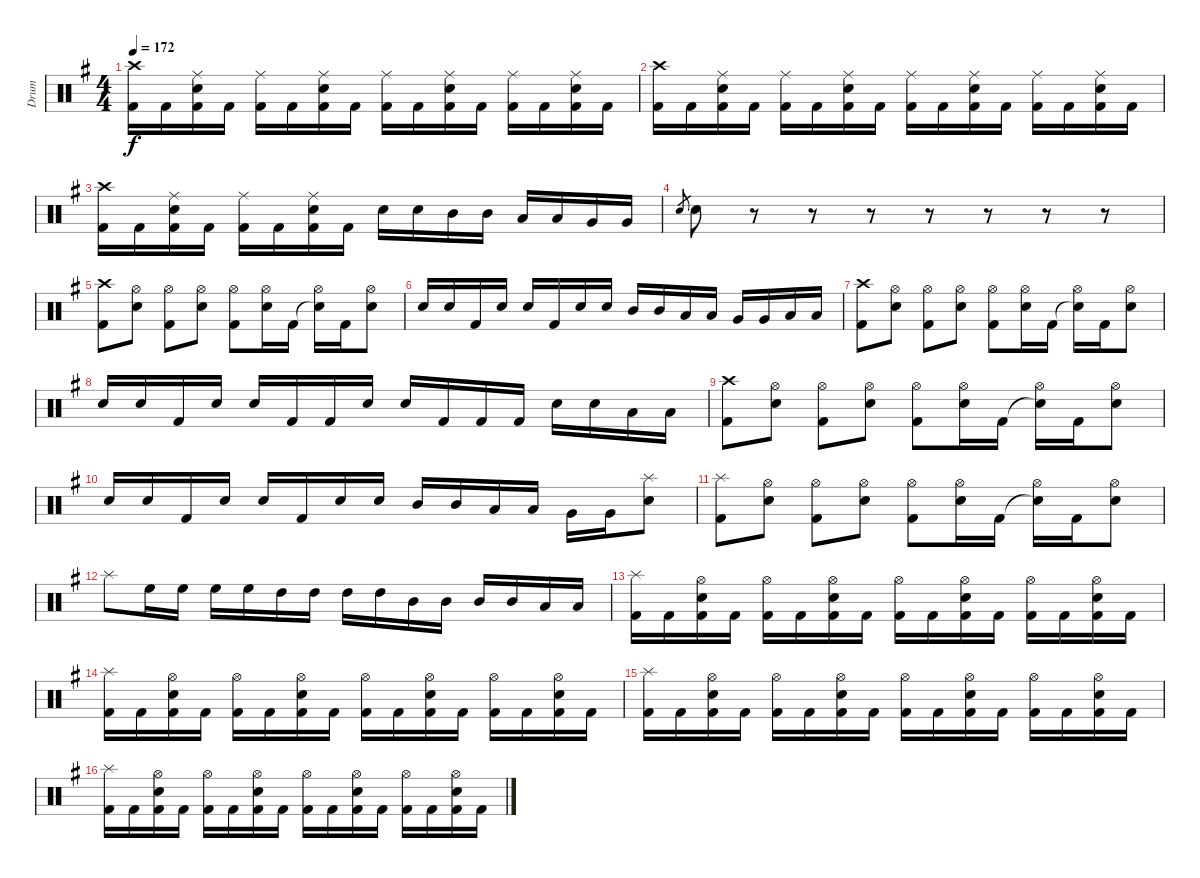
\track ("Drum" "Drum") {instrument percussion}
\staff {score}
\articulation defaults
\ts (4 4)
\tempo 172
\clef neutral
\ks eminor
("Kick (hit) 2" "Crash high (hit)").16{dy f} "Kick (hit) 2".16 ("Kick (hit) 2" "Ride (middle)" "Electric Snare (hit)").16 "Kick (hit) 2".16 ("Kick (hit) 2" "Ride (middle)").16 "Kick (hit) 2".16 ("Kick (hit) 2" "Ride (middle)" "Electric Snare (hit)").16 "Kick (hit) 2".16 ("Kick (hit) 2" "Ride (middle)").16 "Kick (hit) 2".16 ("Kick (hit) 2" "Ride (middle)" "Electric Snare (hit)").16 "Kick (hit) 2".16 ("Kick (hit) 2" "Ride (middle)").16 "Kick (hit) 2".16 ("Kick (hit) 2" "Ride (middle)" "Electric Snare (hit)").16 "Kick (hit) 2".16 |
("Kick (hit) 2" "Crash high (hit)").16 "Kick (hit) 2".16 ("Kick (hit) 2" "Ride (middle)" "Electric Snare (hit)").16 "Kick (hit) 2".16 ("Kick (hit) 2" "Ride (middle)").16 "Kick (hit) 2".16 ("Kick (hit) 2" "Ride (middle)" "Electric Snare (hit)").16 "Kick (hit) 2".16 ("Kick (hit) 2" "Ride (middle)").16 "Kick (hit) 2".16 ("Kick (hit) 2" "Ride (middle)" "Electric Snare (hit)").16 "Kick (hit) 2".16 ("Kick (hit) 2" "Ride (middle)").16 "Kick (hit) 2".16 ("Kick (hit) 2" "Ride (middle)" "Electric Snare (hit)").16 "Kick (hit) 2".16 |
("Kick (hit) 2" "Crash high (hit)").16 "Kick (hit) 2".16 ("Kick (hit) 2" "Ride (middle)" "Electric Snare (hit)").16 "Kick (hit) 2".16 ("Kick (hit) 2" "Ride (middle)").16 "Kick (hit) 2".16 ("Kick (hit) 2" "Ride (middle)" "Electric Snare (hit)").16 "Kick (hit) 2".16 "Electric Snare (hit)".16 "Electric Snare (hit)".16 "Mid Tom (hit)".16 "Mid Tom (hit)".16 "Low Tom (hit)".16 "Low Tom (hit)".16 "Very Low Tom (hit)".16 "Very Low Tom (hit)".16 |
"Electric Snare (hit)".8{gr} "Electric Snare (hit)".8 r.8 r.8 r.8 r.8 r.8 r.8 r.8 |
("Kick (hit) 2" "Crash high (hit)").8 ("Electric Snare (hit)" "Hi-Hat (open)").8 ("Kick (hit) 2" "Hi-Hat (open)").8 ("Electric Snare (hit)" "Hi-Hat (open)").8 ("Kick (hit) 2" "Hi-Hat (open)").8 ("Electric Snare (hit)" "Hi-Hat (open)").16 "Kick (hit) 2".16 ("Snare (hit)"{t} "Hi-Hat (open)").16 "Kick (hit) 2".16 ("Electric Snare (hit)" "Hi-Hat (open)").8 |
"Electric Snare (hit)".16 "Electric Snare (hit)".16 "Kick (hit) 2".16 "Electric Snare (hit)".16 "Electric Snare (hit)".16 "Kick (hit) 2".16 "Electric Snare (hit)".16 "Electric Snare (hit)".16 "Mid Tom (hit)".16 "Mid Tom (hit)".16 "Low Tom (hit)".16 "Low Tom (hit)".16 "Very Low Tom (hit)".16 "Very Low Tom (hit)".16 "Low Floor Tom (hit)".16 "Low Floor Tom (hit)".16 |
("Kick (hit) 2" "Crash high (hit)").8 ("Electric Snare (hit)" "Hi-Hat (open)").8 ("Kick (hit) 2" "Hi-Hat (open)").8 ("Electric Snare (hit)" "Hi-Hat (open)").8 ("Kick (hit) 2" "Hi-Hat (open)").8 ("Electric Snare (hit)" "Hi-Hat (open)").16 "Kick (hit) 2".16 ("Snare (hit)"{t} "Hi-Hat (open)").16 "Kick (hit) 2".16 ("Electric Snare (hit)" "Hi-Hat (open)").8 |
"Electric Snare (hit)".16 "Electric Snare (hit)".16 "Kick (hit) 2".16 "Electric Snare (hit)".16 "Electric Snare (hit)".16 "Kick (hit) 2".16 "Kick (hit) 2".16 "Electric Snare (hit)".16 "Electric Snare (hit)".16 "Kick (hit) 2".16 "Kick (hit) 2".16 "Kick (hit) 2".16 "Electric Snare (hit)".16 "Electric Snare (hit)".16 "Low Tom (hit)".16 "Low Tom (hit)".16 |
("Kick (hit) 2" "Crash high (hit)").8 ("Electric Snare (hit)" "Hi-Hat (open)").8 ("Kick (hit) 2" "Hi-Hat (open)").8 ("Electric Snare (hit)" "Hi-Hat (open)").8 ("Kick (hit) 2" "Hi-Hat (open)").8 ("Electric Snare (hit)" "Hi-Hat (open)").16 "Kick (hit) 2".16 ("Snare (hit)"{t} "Hi-Hat (open)").16 "Kick (hit) 2".16 ("Electric Snare (hit)" "Hi-Hat (open)").8 |
"Electric Snare (hit)".16 "Electric Snare (hit)".16 "Kick (hit) 2".16 "Electric Snare (hit)".16 "Electric Snare (hit)".16 "Kick (hit) 2".16 "Electric Snare (hit)".16 "Electric Snare (hit)".16 "Mid Tom (hit)".16 "Mid Tom (hit)".16 "Low Tom (hit)".16 "Low Tom (hit)".16 "Very Low Tom (hit)".16 "Very Low Tom (hit)".16 ("Electric Snare (hit)" "Splash (hit)").8 |
("Kick (hit) 2" "Splash (hit)").8 ("Electric Snare (hit)" "Hi-Hat (open)").8 ("Kick (hit) 2" "Hi-Hat (open)").8 ("Electric Snare (hit)" "Hi-Hat (open)").8 ("Kick (hit) 2" "Hi-Hat (open)").8 ("Electric Snare (hit)" "Hi-Hat (open)").16 "Kick (hit) 2".16 ("Snare (hit)"{t} "Hi-Hat (open)").16 "Kick (hit) 2".16 ("Electric Snare (hit)" "Hi-Hat (open)").8 |
"Splash (hit)".8 "High Floor Tom (hit)".16 "High Floor Tom (hit)".16 "High Floor Tom (hit)".16 "High Floor Tom (hit)".16 "High Tom (hit)".16 "High Tom (hit)".16 "High Tom (hit)".16 "High Tom (hit)".16 "Mid Tom (hit)".16 "Mid Tom (hit)".16 "Mid Tom (hit)".16 "Mid Tom (hit)".16 "Low Tom (hit)".16 "Low Tom (hit)".16 |
("Kick (hit) 2" "Splash (hit)").16 "Kick (hit) 2".16 ("Kick (hit) 2" "Hi-Hat (open)" "Electric Snare (hit)").16 "Kick (hit) 2".16 ("Kick (hit) 2" "Hi-Hat (open)").16 "Kick (hit) 2".16 ("Kick (hit) 2" "Hi-Hat (open)" "Electric Snare (hit)").16 "Kick (hit) 2".16 ("Kick (hit) 2" "Hi-Hat (open)").16 "Kick (hit) 2".16 ("Kick (hit) 2" "Hi-Hat (open)" "Electric Snare (hit)").16 "Kick (hit) 2".16 ("Kick (hit) 2" "Hi-Hat (open)").16 "Kick (hit) 2".16 ("Kick (hit) 2" "Hi-Hat (open)" "Electric Snare (hit)").16 "Kick (hit) 2".16 |
("Kick (hit) 2" "Splash (hit)").16 "Kick (hit) 2".16 ("Kick (hit) 2" "Hi-Hat (open)" "Electric Snare (hit)").16 "Kick (hit) 2".16 ("Kick (hit) 2" "Hi-Hat (open)").16 "Kick (hit) 2".16 ("Kick (hit) 2" "Hi-Hat (open)" "Electric Snare (hit)").16 "Kick (hit) 2".16 ("Kick (hit) 2" "Hi-Hat (open)").16 "Kick (hit) 2".16 ("Kick (hit) 2" "Hi-Hat (open)" "Electric Snare (hit)").16 "Kick (hit) 2".16 ("Kick (hit) 2" "Hi-Hat (open)").16 "Kick (hit) 2".16 ("Kick (hit) 2" "Hi-Hat (open)" "Electric Snare (hit)").16 "Kick (hit) 2".16 |
("Kick (hit) 2" "Splash (hit)").16 "Kick (hit) 2".16 ("Kick (hit) 2" "Hi-Hat (open)" "Electric Snare (hit)").16 "Kick (hit) 2".16 ("Kick (hit) 2" "Hi-Hat (open)").16 "Kick (hit) 2".16 ("Kick (hit) 2" "Hi-Hat (open)" "Electric Snare (hit)").16 "Kick (hit) 2".16 ("Kick (hit) 2" "Hi-Hat (open)").16 "Kick (hit) 2".16 ("Kick (hit) 2" "Hi-Hat (open)" "Electric Snare (hit)").16 "Kick (hit) 2".16 ("Kick (hit) 2" "Hi-Hat (open)").16 "Kick (hit) 2".16 ("Kick (hit) 2" "Hi-Hat (open)" "Electric Snare (hit)").16 "Kick (hit) 2".16 |
("Kick (hit) 2" "Splash (hit)").16 "Kick (hit) 2".16 ("Kick (hit) 2" "Hi-Hat (open)" "Electric Snare (hit)").16 "Kick (hit) 2".16 ("Kick (hit) 2" "Hi-Hat (open)").16 "Kick (hit) 2".16 ("Kick (hit) 2" "Hi-Hat (open)" "Electric Snare (hit)").16 "Kick (hit) 2".16 ("Kick (hit) 2" "Hi-Hat (open)").16 "Kick (hit) 2".16 ("Kick (hit) 2" "Hi-Hat (open)" "Electric Snare (hit)").16 "Kick (hit) 2".16 ("Kick (hit) 2" "Hi-Hat (open)").16 "Kick (hit) 2".16 ("Kick (hit) 2" "Hi-Hat (open)" "Electric Snare (hit)").16 "Kick (hit) 2".16
